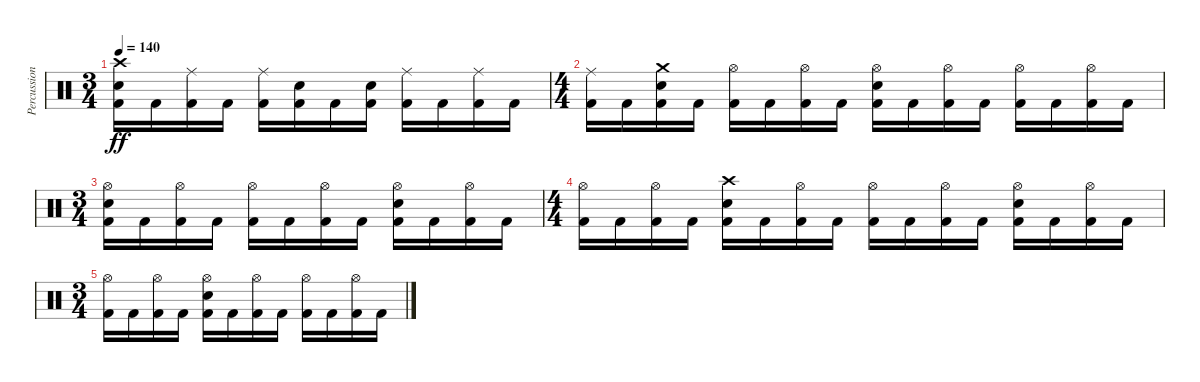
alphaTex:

\track ("Percussion" "Percussion") {instrument percussion}
\staff {score}
\articulation defaults
\ts (3 4)
\tempo 140
\clef neutral
\ks c
("Crash high (hit)" "Electric Snare (hit)" "Kick (hit) 2").16{dy ff} "Kick (hit) 2".16 ("Ride (middle)" "Kick (hit) 2").16 "Kick (hit) 2".16 ("Ride (middle)" "Kick (hit) 2").16 ("Electric Snare (hit)" "Kick (hit) 2").16 "Kick (hit) 2".16 ("Electric Snare (hit)" "Kick (hit) 2").16 ("Ride (middle)" "Kick (hit) 2").16 "Kick (hit) 2".16 ("Ride (middle)" "Kick (hit) 2").16 "Kick (hit) 2".16 |
\ts (4 4)
("Ride (middle)" "Kick (hit) 2").16 "Kick (hit) 2".16 ("Crash medium (hit)" "Electric Snare (hit)" "Kick (hit) 2").16 "Kick (hit) 2".16 ("Hi-Hat (open)" "Kick (hit) 2").16 "Kick (hit) 2".16 ("Hi-Hat (open)" "Kick (hit) 2").16 "Kick (hit) 2".16 ("Hi-Hat (open)" "Electric Snare (hit)" "Kick (hit) 2").16 "Kick (hit) 2".16 ("Hi-Hat (open)" "Kick (hit) 2").16 "Kick (hit) 2".16 ("Hi-Hat (open)" "Kick (hit) 2").16 "Kick (hit) 2".16 ("Hi-Hat (open)" "Kick (hit) 2").16 "Kick (hit) 2".16 |
\ts (3 4)
("Hi-Hat (open)" "Electric Snare (hit)" "Kick (hit) 2").16 "Kick (hit) 2".16 ("Hi-Hat (open)" "Kick (hit) 2").16 "Kick (hit) 2".16 ("Hi-Hat (open)" "Kick (hit) 2").16 "Kick (hit) 2".16 ("Hi-Hat (open)" "Kick (hit) 2").16 "Kick (hit) 2".16 ("Hi-Hat (open)" "Electric Snare (hit)" "Kick (hit) 2").16 "Kick (hit) 2".16 ("Hi-Hat (open)" "Kick (hit) 2").16 "Kick (hit) 2".16 |
\ts (4 4)
("Hi-Hat (open)" "Kick (hit) 2").16{volume 0} "Kick (hit) 2".16 ("Hi-Hat (open)" "Kick (hit) 2").16 "Kick (hit) 2".16 ("Crash high (hit)" "Electric Snare (hit)" "Kick (hit) 2").16 "Kick (hit) 2".16 ("Hi-Hat (open)" "Kick (hit) 2").16 "Kick (hit) 2".16 ("Hi-Hat (open)" "Kick (hit) 2").16 "Kick (hit) 2".16 ("Hi-Hat (open)" "Kick (hit) 2").16 "Kick (hit) 2".16 ("Hi-Hat (open)" "Electric Snare (hit)" "Kick (hit) 2").16 "Kick (hit) 2".16 ("Hi-Hat (open)" "Kick (hit) 2").16 "Kick (hit) 2".16 |
\ts (3 4)
("Hi-Hat (open)" "Kick (hit) 2").16 "Kick (hit) 2".16 ("Hi-Hat (open)" "Kick (hit) 2").16 "Kick (hit) 2".16 ("Hi-Hat (open)" "Electric Snare (hit)" "Kick (hit) 2").16 "Kick (hit) 2".16 ("Hi-Hat (open)" "Kick (hit) 2").16 "Kick (hit) 2".16 ("Hi-Hat (open)" "Kick (hit) 2").16 "Kick (hit) 2".16 ("Hi-Hat (open)" "Kick (hit) 2").16 "Kick (hit) 2".16
